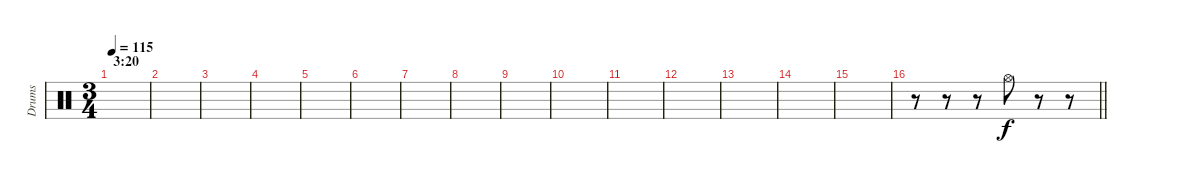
\track ("Drums" "Drums") {instrument percussion}
\staff {score}
\articulation defaults
\ts (3 4)
\section ("" "3:20")
\tempo 115
\clef neutral
\ks c
|
|
|
|
|
|
|
|
|
|
|
|
|
|
|
\barLineRight lightlight
r.8 r.8 r.8 "Hi-Hat (open)".8 r.8 r.8
